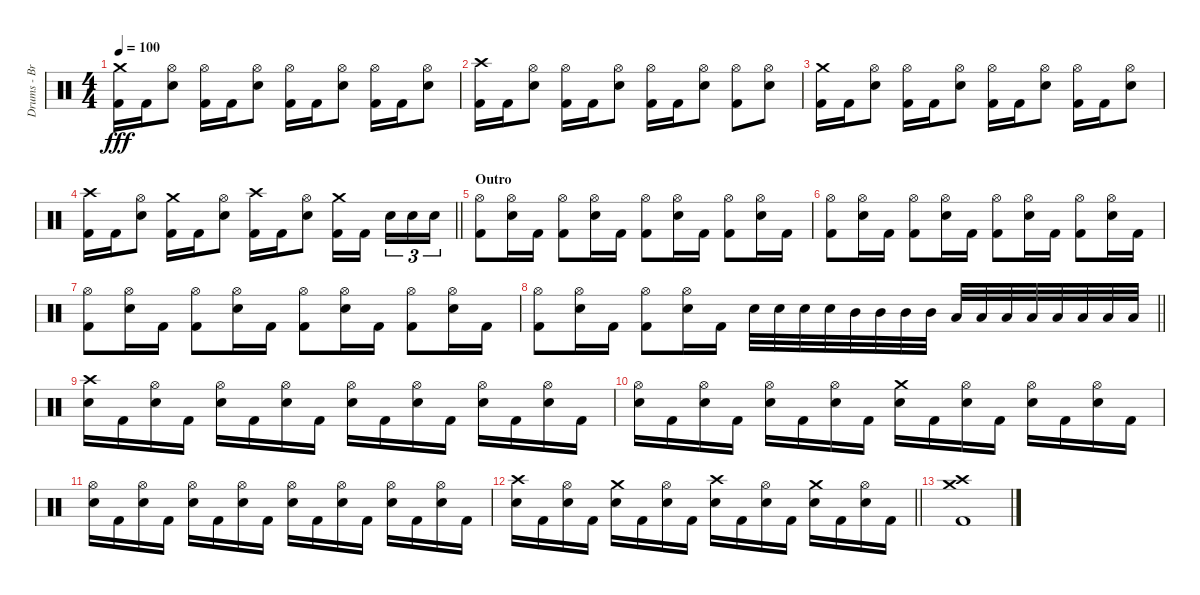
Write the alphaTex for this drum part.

\track ("Drums - Brandon" "Drums - Br") {instrument percussion}
\staff {score}
\articulation defaults
\ts (4 4)
\tempo 100
\clef neutral
\ks c
("Crash medium (hit)" "Kick (hit) 2").16{dy fff} "Kick (hit) 2".16 ("Hi-Hat (open)" "Snare (hit) 2").8 ("Hi-Hat (open)" "Kick (hit) 2").16 "Kick (hit) 2".16 ("Hi-Hat (open)" "Snare (hit) 2").8 ("Hi-Hat (open)" "Kick (hit) 2").16 "Kick (hit) 2".16 ("Hi-Hat (open)" "Snare (hit) 2").8 ("Hi-Hat (open)" "Kick (hit) 2").16 "Kick (hit) 2".16 ("Hi-Hat (open)" "Snare (hit) 2").8 |
("Crash high (hit)" "Kick (hit) 2").16 "Kick (hit) 2".16 ("Hi-Hat (open)" "Snare (hit) 2").8 ("Hi-Hat (open)" "Kick (hit) 2").16 "Kick (hit) 2".16 ("Hi-Hat (open)" "Snare (hit) 2").8 ("Hi-Hat (open)" "Kick (hit) 2").16 "Kick (hit) 2".16 ("Hi-Hat (open)" "Snare (hit) 2").8 ("Hi-Hat (open)" "Kick (hit) 2").8 ("Hi-Hat (open)" "Snare (hit) 2").8 |
("Crash medium (hit)" "Kick (hit) 2").16 "Kick (hit) 2".16 ("Hi-Hat (open)" "Snare (hit) 2").8 ("Hi-Hat (open)" "Kick (hit) 2").16 "Kick (hit) 2".16 ("Hi-Hat (open)" "Snare (hit) 2").8 ("Hi-Hat (open)" "Kick (hit) 2").16 "Kick (hit) 2".16 ("Hi-Hat (open)" "Snare (hit) 2").8 ("Hi-Hat (open)" "Kick (hit) 2").16 "Kick (hit) 2".16 ("Hi-Hat (open)" "Snare (hit) 2").8 |
\barLineRight lightlight
("Crash high (hit)" "Kick (hit) 2").16 "Kick (hit) 2".16 ("Hi-Hat (open)" "Snare (hit) 2").8 ("Crash medium (hit)" "Kick (hit) 2").16 "Kick (hit) 2".16 ("Hi-Hat (open)" "Snare (hit) 2").8 ("Crash high (hit)" "Kick (hit) 2").16 "Kick (hit) 2".16 ("Hi-Hat (open)" "Snare (hit) 2").8 ("Crash medium (hit)" "Kick (hit) 2").16 "Kick (hit) 2".16{beam splitsecondary} "Snare (hit) 2".16{tu (3 2)} "Snare (hit) 2".16{tu (3 2)} "Snare (hit) 2".16{tu (3 2)} |
\section ("" "Outro")
("Hi-Hat (open)" "Kick (hit) 2").8 ("Hi-Hat (open)" "Snare (hit) 2").16 "Kick (hit) 2".16 ("Hi-Hat (open)" "Kick (hit) 2").8 ("Hi-Hat (open)" "Snare (hit) 2").16 "Kick (hit) 2".16 ("Hi-Hat (open)" "Kick (hit) 2").8 ("Hi-Hat (open)" "Snare (hit) 2").16 "Kick (hit) 2".16 ("Hi-Hat (open)" "Kick (hit) 2").8 ("Hi-Hat (open)" "Snare (hit) 2").16 "Kick (hit) 2".16 |
("Hi-Hat (open)" "Kick (hit) 2").8 ("Hi-Hat (open)" "Snare (hit) 2").16 "Kick (hit) 2".16 ("Hi-Hat (open)" "Kick (hit) 2").8 ("Hi-Hat (open)" "Snare (hit) 2").16 "Kick (hit) 2".16 ("Hi-Hat (open)" "Kick (hit) 2").8 ("Hi-Hat (open)" "Snare (hit) 2").16 "Kick (hit) 2".16 ("Hi-Hat (open)" "Kick (hit) 2").8 ("Hi-Hat (open)" "Snare (hit) 2").16 "Kick (hit) 2".16 |
("Hi-Hat (open)" "Kick (hit) 2").8 ("Hi-Hat (open)" "Snare (hit) 2").16 "Kick (hit) 2".16 ("Hi-Hat (open)" "Kick (hit) 2").8 ("Hi-Hat (open)" "Snare (hit) 2").16 "Kick (hit) 2".16 ("Hi-Hat (open)" "Kick (hit) 2").8 ("Hi-Hat (open)" "Snare (hit) 2").16 "Kick (hit) 2".16 ("Hi-Hat (open)" "Kick (hit) 2").8 ("Hi-Hat (open)" "Snare (hit) 2").16 "Kick (hit) 2".16 |
\barLineRight lightlight
("Hi-Hat (open)" "Kick (hit) 2").8 ("Hi-Hat (open)" "Snare (hit) 2").16 "Kick (hit) 2".16 ("Hi-Hat (open)" "Kick (hit) 2").8 ("Hi-Hat (open)" "Snare (hit) 2").16 "Kick (hit) 2".16 "Snare (hit) 2".32 "Snare (hit) 2".32 "Snare (hit) 2".32 "Snare (hit) 2".32 "Mid Tom (hit)".32 "Mid Tom (hit)".32 "Mid Tom (hit)".32 "Mid Tom (hit)".32 "Low Tom (hit)".32 "Low Tom (hit)".32 "Low Tom (hit)".32 "Low Tom (hit)".32 "Low Floor Tom (hit)".32 "Low Floor Tom (hit)".32 "Low Floor Tom (hit)".32 "Low Floor Tom (hit)".32 |
("Crash high (hit)" "Snare (hit) 2").16 "Kick (hit) 2".16 ("Hi-Hat (open)" "Snare (hit) 2").16 "Kick (hit) 2".16 ("Hi-Hat (open)" "Snare (hit) 2").16 "Kick (hit) 2".16 ("Hi-Hat (open)" "Snare (hit) 2").16 "Kick (hit) 2".16 ("Hi-Hat (open)" "Snare (hit) 2").16 "Kick (hit) 2".16 ("Hi-Hat (open)" "Snare (hit) 2").16 "Kick (hit) 2".16 ("Hi-Hat (open)" "Snare (hit) 2").16 "Kick (hit) 2".16 ("Hi-Hat (open)" "Snare (hit) 2").16 "Kick (hit) 2".16 |
("Hi-Hat (open)" "Snare (hit) 2").16 "Kick (hit) 2".16 ("Hi-Hat (open)" "Snare (hit) 2").16 "Kick (hit) 2".16 ("Hi-Hat (open)" "Snare (hit) 2").16 "Kick (hit) 2".16 ("Hi-Hat (open)" "Snare (hit) 2").16 "Kick (hit) 2".16 ("Crash medium (hit)" "Snare (hit) 2").16 "Kick (hit) 2".16 ("Hi-Hat (open)" "Snare (hit) 2").16 "Kick (hit) 2".16 ("Hi-Hat (open)" "Snare (hit) 2").16 "Kick (hit) 2".16 ("Hi-Hat (open)" "Snare (hit) 2").16 "Kick (hit) 2".16 |
("Hi-Hat (open)" "Snare (hit) 2").16 "Kick (hit) 2".16 ("Hi-Hat (open)" "Snare (hit) 2").16 "Kick (hit) 2".16 ("Hi-Hat (open)" "Snare (hit) 2").16 "Kick (hit) 2".16 ("Hi-Hat (open)" "Snare (hit) 2").16 "Kick (hit) 2".16 ("Hi-Hat (open)" "Snare (hit) 2").16 "Kick (hit) 2".16 ("Hi-Hat (open)" "Snare (hit) 2").16 "Kick (hit) 2".16 ("Hi-Hat (open)" "Snare (hit) 2").16 "Kick (hit) 2".16 ("Hi-Hat (open)" "Snare (hit) 2").16 "Kick (hit) 2".16 |
\barLineRight lightlight
("Crash high (hit)" "Snare (hit) 2").16 "Kick (hit) 2".16 ("Hi-Hat (open)" "Snare (hit) 2").16 "Kick (hit) 2".16 ("Crash medium (hit)" "Snare (hit) 2").16 "Kick (hit) 2".16 ("Hi-Hat (open)" "Snare (hit) 2").16 "Kick (hit) 2".16 ("Crash high (hit)" "Snare (hit) 2").16 "Kick (hit) 2".16 ("Hi-Hat (open)" "Snare (hit) 2").16 "Kick (hit) 2".16 ("Crash medium (hit)" "Snare (hit) 2").16 "Kick (hit) 2".16 ("Hi-Hat (open)" "Snare (hit) 2").16 "Kick (hit) 2".16 |
("Crash medium (hit)" "Crash high (hit)" "Kick (hit) 2").1
